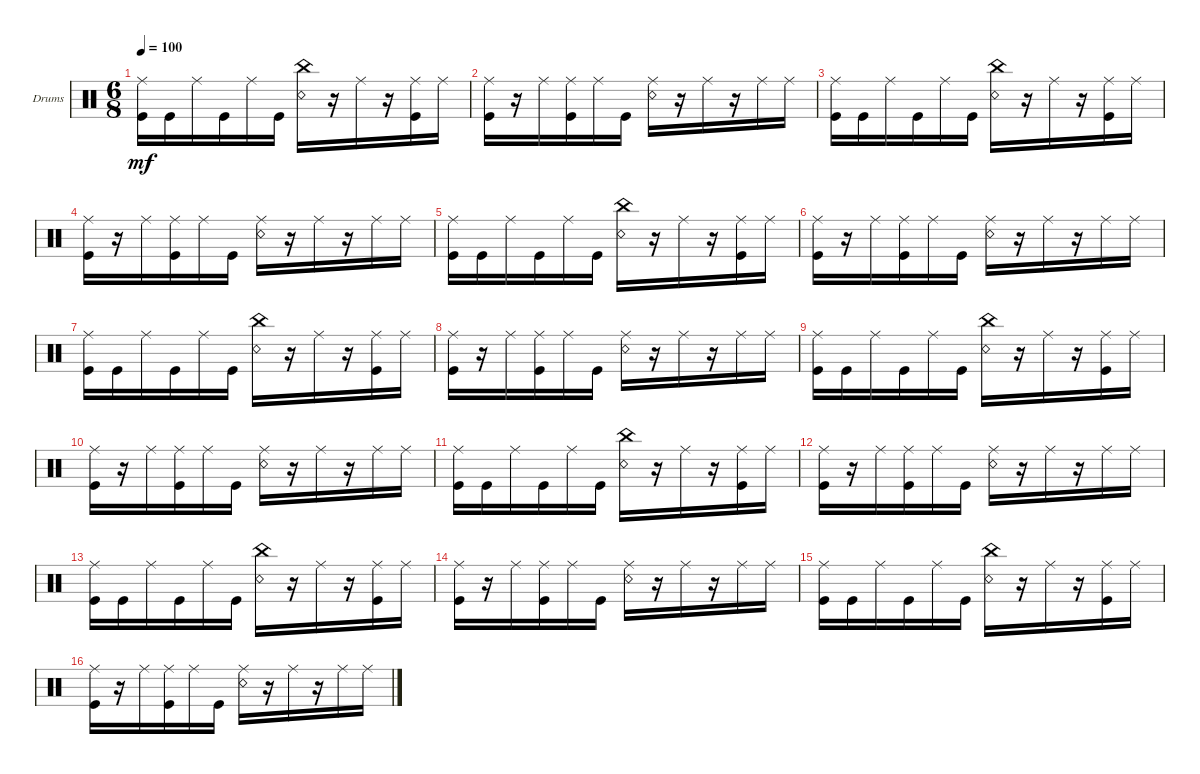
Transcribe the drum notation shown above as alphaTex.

\defaultSystemsLayout 4
\bracketExtendMode groupsimilarinstruments
\firstSystemTrackNameOrientation horizontal
\otherSystemsTrackNameOrientation horizontal
\track ("Drumkit" "Drums") {instrument percussion}
\staff {score}
\articulation defaults
\ts (6 8)
\tempo 100
\clef neutral
\ks aminor
("Ride (middle)" "Kick (hit)").16{dy mf} "Kick (hit)".16 "Ride (middle)".16 "Kick (hit)".16 "Ride (middle)".16 "Kick (hit)".16 ("Snare (rim shot)" "China (hit)").16 r.16 "Ride (middle)".16 r.16 ("Ride (middle)" "Kick (hit)").16 "Ride (middle)".16 |
("Ride (middle)" "Kick (hit)").16 r.16 "Ride (middle)".16 ("Ride (middle)" "Kick (hit)").16 "Ride (middle)".16 "Kick (hit)".16 ("Ride (middle)" "Snare (rim shot)").16 r.16 "Ride (middle)".16 r.16 "Ride (middle)".16 "Ride (middle)".16 |
("Ride (middle)" "Kick (hit)").16 "Kick (hit)".16 "Ride (middle)".16 "Kick (hit)".16 "Ride (middle)".16 "Kick (hit)".16 ("Snare (rim shot)" "China (hit)").16 r.16 "Ride (middle)".16 r.16 ("Ride (middle)" "Kick (hit)").16 "Ride (middle)".16 |
("Ride (middle)" "Kick (hit)").16 r.16 "Ride (middle)".16 ("Ride (middle)" "Kick (hit)").16 "Ride (middle)".16 "Kick (hit)".16 ("Ride (middle)" "Snare (rim shot)").16 r.16 "Ride (middle)".16 r.16 "Ride (middle)".16 "Ride (middle)".16 |
("Ride (middle)" "Kick (hit)").16 "Kick (hit)".16 "Ride (middle)".16 "Kick (hit)".16 "Ride (middle)".16 "Kick (hit)".16 ("Snare (rim shot)" "China (hit)").16 r.16 "Ride (middle)".16 r.16 ("Ride (middle)" "Kick (hit)").16 "Ride (middle)".16 |
("Ride (middle)" "Kick (hit)").16 r.16 "Ride (middle)".16 ("Ride (middle)" "Kick (hit)").16 "Ride (middle)".16 "Kick (hit)".16 ("Ride (middle)" "Snare (rim shot)").16 r.16 "Ride (middle)".16 r.16 "Ride (middle)".16 "Ride (middle)".16 |
("Ride (middle)" "Kick (hit)").16 "Kick (hit)".16 "Ride (middle)".16 "Kick (hit)".16 "Ride (middle)".16 "Kick (hit)".16 ("Snare (rim shot)" "China (hit)").16 r.16 "Ride (middle)".16 r.16 ("Ride (middle)" "Kick (hit)").16 "Ride (middle)".16 |
("Ride (middle)" "Kick (hit)").16 r.16 "Ride (middle)".16 ("Ride (middle)" "Kick (hit)").16 "Ride (middle)".16 "Kick (hit)".16 ("Ride (middle)" "Snare (rim shot)").16 r.16 "Ride (middle)".16 r.16 "Ride (middle)".16 "Ride (middle)".16 |
("Ride (middle)" "Kick (hit)").16 "Kick (hit)".16 "Ride (middle)".16 "Kick (hit)".16 "Ride (middle)".16 "Kick (hit)".16 ("Snare (rim shot)" "China (hit)").16 r.16 "Ride (middle)".16 r.16 ("Ride (middle)" "Kick (hit)").16 "Ride (middle)".16 |
("Ride (middle)" "Kick (hit)").16 r.16 "Ride (middle)".16 ("Ride (middle)" "Kick (hit)").16 "Ride (middle)".16 "Kick (hit)".16 ("Ride (middle)" "Snare (rim shot)").16 r.16 "Ride (middle)".16 r.16 "Ride (middle)".16 "Ride (middle)".16 |
("Ride (middle)" "Kick (hit)").16 "Kick (hit)".16 "Ride (middle)".16 "Kick (hit)".16 "Ride (middle)".16 "Kick (hit)".16 ("Snare (rim shot)" "China (hit)").16 r.16 "Ride (middle)".16 r.16 ("Ride (middle)" "Kick (hit)").16 "Ride (middle)".16 |
("Ride (middle)" "Kick (hit)").16 r.16 "Ride (middle)".16 ("Ride (middle)" "Kick (hit)").16 "Ride (middle)".16 "Kick (hit)".16 ("Ride (middle)" "Snare (rim shot)").16 r.16 "Ride (middle)".16 r.16 "Ride (middle)".16 "Ride (middle)".16 |
("Ride (middle)" "Kick (hit)").16 "Kick (hit)".16 "Ride (middle)".16 "Kick (hit)".16 "Ride (middle)".16 "Kick (hit)".16 ("Snare (rim shot)" "China (hit)").16 r.16 "Ride (middle)".16 r.16 ("Ride (middle)" "Kick (hit)").16 "Ride (middle)".16 |
("Ride (middle)" "Kick (hit)").16 r.16 "Ride (middle)".16 ("Ride (middle)" "Kick (hit)").16 "Ride (middle)".16 "Kick (hit)".16 ("Ride (middle)" "Snare (rim shot)").16 r.16 "Ride (middle)".16 r.16 "Ride (middle)".16 "Ride (middle)".16 |
("Ride (middle)" "Kick (hit)").16 "Kick (hit)".16 "Ride (middle)".16 "Kick (hit)".16 "Ride (middle)".16 "Kick (hit)".16 ("Snare (rim shot)" "China (hit)").16 r.16 "Ride (middle)".16 r.16 ("Ride (middle)" "Kick (hit)").16 "Ride (middle)".16 |
("Ride (middle)" "Kick (hit)").16 r.16 "Ride (middle)".16 ("Ride (middle)" "Kick (hit)").16 "Ride (middle)".16 "Kick (hit)".16 ("Ride (middle)" "Snare (rim shot)").16 r.16 "Ride (middle)".16 r.16 "Ride (middle)".16 "Ride (middle)".16
